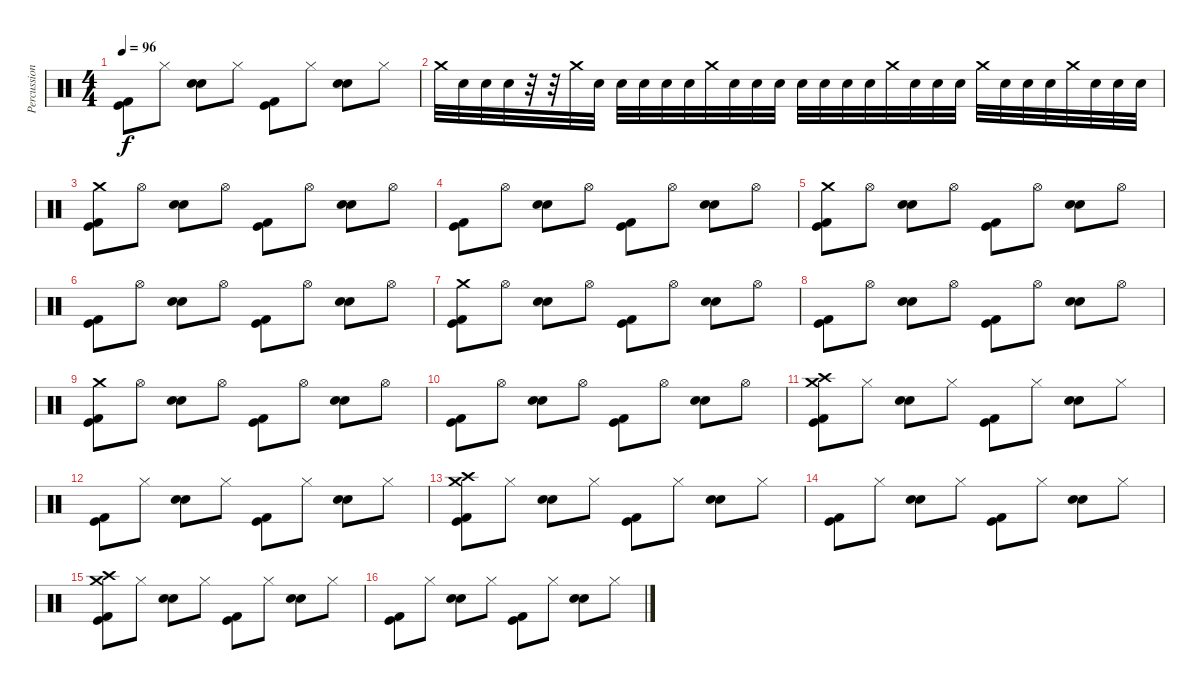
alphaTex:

\track ("Percussion" "Percussion") {instrument percussion}
\staff {score}
\articulation defaults
\ts (4 4)
\tempo 96
\clef neutral
\ks c
("Kick (hit) 2" "Kick (hit)").8{dy f} "Hi-Hat (closed)".8 ("Snare (hit) 2" "Electric Snare (hit)").8 "Hi-Hat (closed)".8 ("Kick (hit)" "Kick (hit) 2").8 "Hi-Hat (closed)".8 ("Electric Snare (hit)" "Snare (hit) 2").8 "Hi-Hat (closed)".8 |
"Crash medium (hit)".32 "Snare (hit)".32 "Snare (hit)".32 "Snare (hit)".32 r.32 r.32 "Crash medium (hit)".32 "Snare (hit)".32 "Snare (hit)".32 "Snare (hit)".32 "Snare (hit)".32 "Snare (hit)".32 "Crash medium (hit)".32 "Snare (hit)".32 "Snare (hit)".32 "Snare (hit)".32 "Snare (hit)".32 "Snare (hit)".32 "Snare (hit)".32 "Snare (hit)".32 "Crash medium (hit)".32 "Snare (hit)".32 "Snare (hit)".32 "Snare (hit)".32 "Crash medium (hit)".32 "Snare (hit)".32 "Snare (hit)".32 "Snare (hit)".32 "Crash medium (hit)".32 "Snare (hit)".32 "Snare (hit)".32 "Snare (hit)".32 |
("Crash medium (hit)" "Kick (hit) 2" "Kick (hit)").8 "Hi-Hat (open)".8 ("Snare (hit) 2" "Electric Snare (hit)").8 "Hi-Hat (open)".8 ("Kick (hit)" "Kick (hit) 2").8 "Hi-Hat (open)".8 ("Electric Snare (hit)" "Snare (hit) 2").8 "Hi-Hat (open)".8 |
("Kick (hit) 2" "Kick (hit)").8 "Hi-Hat (open)".8 ("Snare (hit) 2" "Electric Snare (hit)").8 "Hi-Hat (open)".8 ("Kick (hit)" "Kick (hit) 2").8 "Hi-Hat (open)".8 ("Electric Snare (hit)" "Snare (hit) 2").8 "Hi-Hat (open)".8 |
("Crash medium (hit)" "Kick (hit) 2" "Kick (hit)").8 "Hi-Hat (open)".8 ("Snare (hit) 2" "Electric Snare (hit)").8 "Hi-Hat (open)".8 ("Kick (hit)" "Kick (hit) 2").8 "Hi-Hat (open)".8 ("Electric Snare (hit)" "Snare (hit) 2").8 "Hi-Hat (open)".8 |
("Kick (hit) 2" "Kick (hit)").8 "Hi-Hat (open)".8 ("Snare (hit) 2" "Electric Snare (hit)").8 "Hi-Hat (open)".8 ("Kick (hit)" "Kick (hit) 2").8 "Hi-Hat (open)".8 ("Electric Snare (hit)" "Snare (hit) 2").8 "Hi-Hat (open)".8 |
("Crash medium (hit)" "Kick (hit) 2" "Kick (hit)").8 "Hi-Hat (open)".8 ("Snare (hit) 2" "Electric Snare (hit)").8 "Hi-Hat (open)".8 ("Kick (hit)" "Kick (hit) 2").8 "Hi-Hat (open)".8 ("Electric Snare (hit)" "Snare (hit) 2").8 "Hi-Hat (open)".8 |
("Kick (hit) 2" "Kick (hit)").8 "Hi-Hat (open)".8 ("Snare (hit) 2" "Electric Snare (hit)").8 "Hi-Hat (open)".8 ("Kick (hit)" "Kick (hit) 2").8 "Hi-Hat (open)".8 ("Electric Snare (hit)" "Snare (hit) 2").8 "Hi-Hat (open)".8 |
("Crash medium (hit)" "Kick (hit) 2" "Kick (hit)").8 "Hi-Hat (open)".8 ("Snare (hit) 2" "Electric Snare (hit)").8 "Hi-Hat (open)".8 ("Kick (hit)" "Kick (hit) 2").8 "Hi-Hat (open)".8 ("Electric Snare (hit)" "Snare (hit) 2").8 "Hi-Hat (open)".8 |
("Kick (hit) 2" "Kick (hit)").8 "Hi-Hat (open)".8 ("Snare (hit) 2" "Electric Snare (hit)").8 "Hi-Hat (open)".8 ("Kick (hit)" "Kick (hit) 2").8 "Hi-Hat (open)".8 ("Electric Snare (hit)" "Snare (hit) 2").8 "Hi-Hat (open)".8 |
("Crash medium (hit)" "Crash high (hit)" "Kick (hit) 2" "Kick (hit)").8 "Hi-Hat (closed)".8 ("Snare (hit) 2" "Electric Snare (hit)").8 "Hi-Hat (closed)".8 ("Kick (hit)" "Kick (hit) 2").8 "Hi-Hat (closed)".8 ("Electric Snare (hit)" "Snare (hit) 2").8 "Hi-Hat (closed)".8 |
("Kick (hit) 2" "Kick (hit)").8 "Hi-Hat (closed)".8 ("Snare (hit) 2" "Electric Snare (hit)").8 "Hi-Hat (closed)".8 ("Kick (hit)" "Kick (hit) 2").8 "Hi-Hat (closed)".8 ("Electric Snare (hit)" "Snare (hit) 2").8 "Hi-Hat (closed)".8 |
("Crash medium (hit)" "Crash high (hit)" "Kick (hit) 2" "Kick (hit)").8 "Hi-Hat (closed)".8 ("Snare (hit) 2" "Electric Snare (hit)").8 "Hi-Hat (closed)".8 ("Kick (hit)" "Kick (hit) 2").8 "Hi-Hat (closed)".8 ("Electric Snare (hit)" "Snare (hit) 2").8 "Hi-Hat (closed)".8 |
("Kick (hit) 2" "Kick (hit)").8 "Hi-Hat (closed)".8 ("Snare (hit) 2" "Electric Snare (hit)").8 "Hi-Hat (closed)".8 ("Kick (hit)" "Kick (hit) 2").8 "Hi-Hat (closed)".8 ("Electric Snare (hit)" "Snare (hit) 2").8 "Hi-Hat (closed)".8 |
("Crash medium (hit)" "Crash high (hit)" "Kick (hit) 2" "Kick (hit)").8 "Hi-Hat (closed)".8 ("Snare (hit) 2" "Electric Snare (hit)").8 "Hi-Hat (closed)".8 ("Kick (hit)" "Kick (hit) 2").8 "Hi-Hat (closed)".8 ("Electric Snare (hit)" "Snare (hit) 2").8 "Hi-Hat (closed)".8 |
("Kick (hit) 2" "Kick (hit)").8 "Hi-Hat (closed)".8 ("Snare (hit) 2" "Electric Snare (hit)").8 "Hi-Hat (closed)".8 ("Kick (hit)" "Kick (hit) 2").8 "Hi-Hat (closed)".8 ("Electric Snare (hit)" "Snare (hit) 2").8 "Hi-Hat (closed)".8
